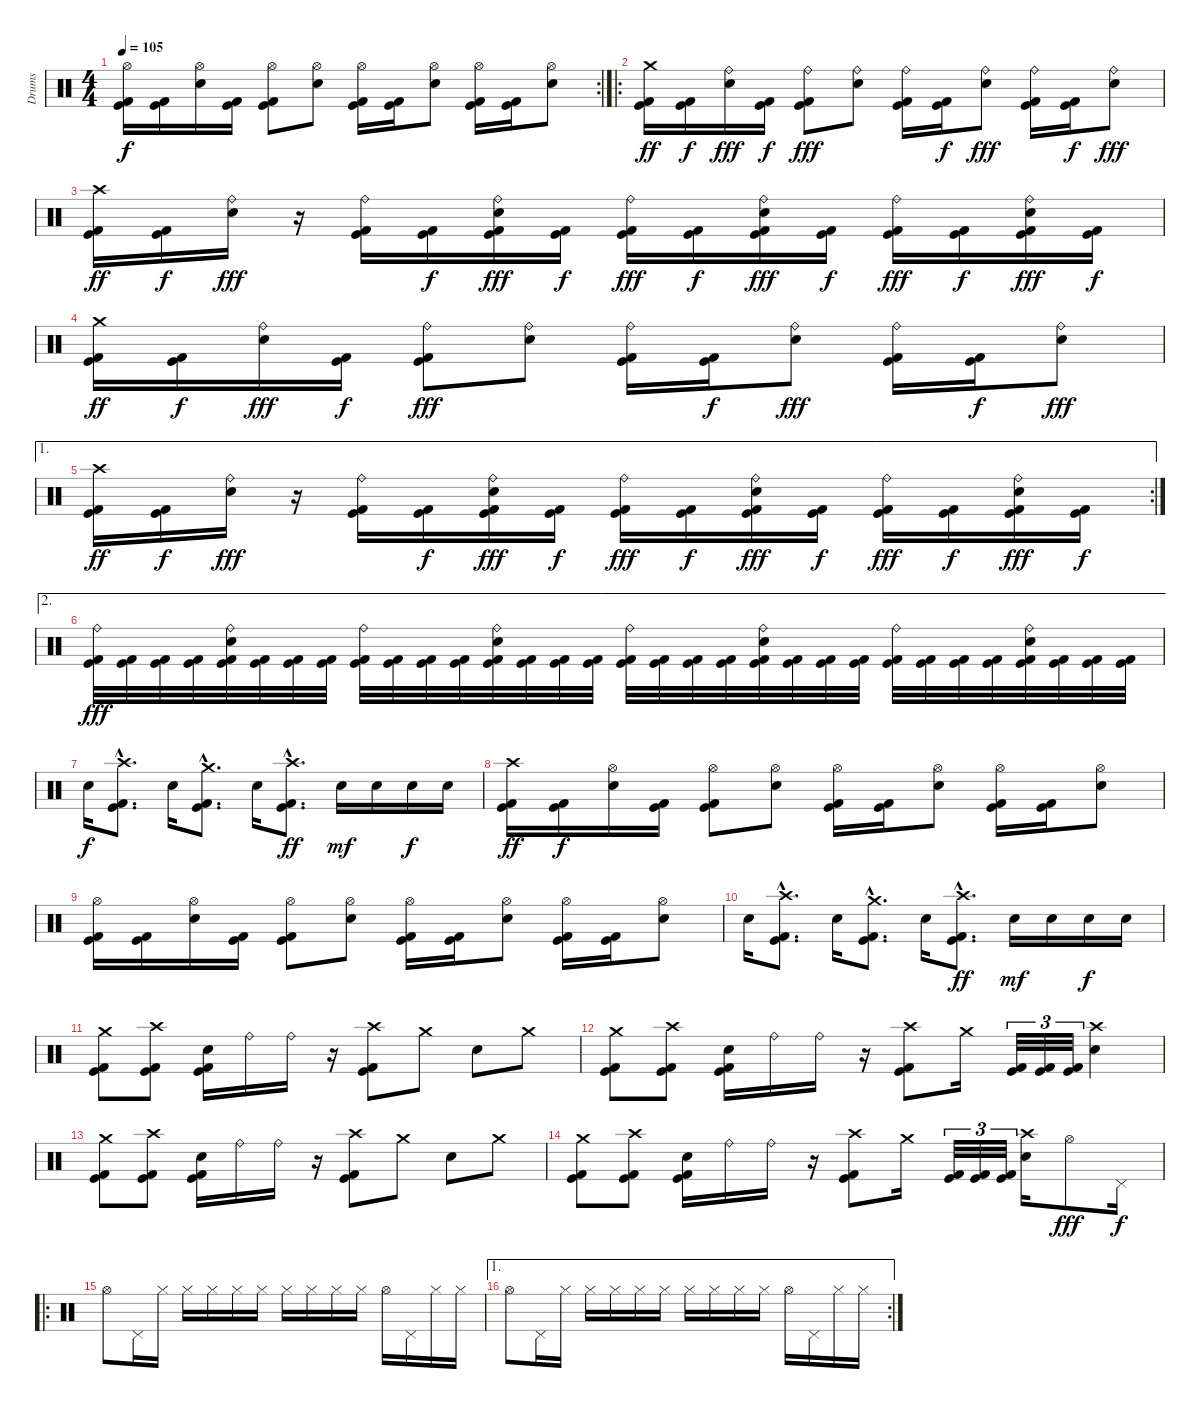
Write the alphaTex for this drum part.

\track ("Drums" "Drums") {instrument percussion}
\staff {score}
\articulation defaults
\rc 2
\ts (4 4)
\tempo 105
\clef neutral
\ks c
("Hi-Hat (open)" "Kick (hit) 2" "Kick (hit)").16{dy f} ("Kick (hit) 2" "Kick (hit)").16 ("Hi-Hat (open)" "Snare (hit) 2").16 ("Kick (hit) 2" "Kick (hit)").16 ("Hi-Hat (open)" "Kick (hit) 2" "Kick (hit)").8 ("Hi-Hat (open)" "Snare (hit) 2").8 ("Hi-Hat (open)" "Kick (hit) 2" "Kick (hit)").16 ("Kick (hit) 2" "Kick (hit)").16 ("Hi-Hat (open)" "Snare (hit) 2").8 ("Hi-Hat (open)" "Kick (hit) 2" "Kick (hit)").16 ("Kick (hit) 2" "Kick (hit)").16 ("Hi-Hat (open)" "Snare (hit) 2").8 |
\ro
("Crash medium (hit)" "Kick (hit) 2" "Kick (hit)").16{dy ff} ("Kick (hit) 2" "Kick (hit)").16{dy f} ("Ride (bell)" "Snare (hit) 2").16{dy fff} ("Kick (hit) 2" "Kick (hit)").16{dy f} ("Ride (bell)" "Kick (hit) 2" "Kick (hit)").8{dy fff} ("Ride (bell)" "Snare (hit) 2").8 ("Ride (bell)" "Kick (hit) 2" "Kick (hit)").16 ("Kick (hit) 2" "Kick (hit)").16{dy f} ("Ride (bell)" "Snare (hit) 2").8{dy fff} ("Ride (bell)" "Kick (hit) 2" "Kick (hit)").16 ("Kick (hit) 2" "Kick (hit)").16{dy f} ("Ride (bell)" "Snare (hit) 2").8{dy fff} |
("Crash high (hit)" "Kick (hit) 2" "Kick (hit)").16{dy ff} ("Kick (hit) 2" "Kick (hit)").16{dy f} ("Ride (bell)" "Snare (hit) 2").16{dy fff} r.16 ("Ride (bell)" "Kick (hit) 2" "Kick (hit)").16 ("Kick (hit) 2" "Kick (hit)").16{dy f} ("Ride (bell)" "Snare (hit) 2" "Kick (hit) 2" "Kick (hit)").16{dy fff} ("Kick (hit) 2" "Kick (hit)").16{dy f} ("Ride (bell)" "Kick (hit) 2" "Kick (hit)").16{dy fff} ("Kick (hit) 2" "Kick (hit)").16{dy f} ("Ride (bell)" "Snare (hit) 2" "Kick (hit) 2" "Kick (hit)").16{dy fff} ("Kick (hit) 2" "Kick (hit)").16{dy f} ("Ride (bell)" "Kick (hit) 2" "Kick (hit)").16{dy fff} ("Kick (hit) 2" "Kick (hit)").16{dy f} ("Ride (bell)" "Snare (hit) 2" "Kick (hit) 2" "Kick (hit)").16{dy fff} ("Kick (hit) 2" "Kick (hit)").16{dy f} |
("Crash medium (hit)" "Kick (hit) 2" "Kick (hit)").16{dy ff} ("Kick (hit) 2" "Kick (hit)").16{dy f} ("Ride (bell)" "Snare (hit) 2").16{dy fff} ("Kick (hit) 2" "Kick (hit)").16{dy f} ("Ride (bell)" "Kick (hit) 2" "Kick (hit)").8{dy fff} ("Ride (bell)" "Snare (hit) 2").8 ("Ride (bell)" "Kick (hit) 2" "Kick (hit)").16 ("Kick (hit) 2" "Kick (hit)").16{dy f} ("Ride (bell)" "Snare (hit) 2").8{dy fff} ("Ride (bell)" "Kick (hit) 2" "Kick (hit)").16 ("Kick (hit) 2" "Kick (hit)").16{dy f} ("Ride (bell)" "Snare (hit) 2").8{dy fff} |
\ae 1
\rc 2
("Crash high (hit)" "Kick (hit) 2" "Kick (hit)").16{dy ff} ("Kick (hit) 2" "Kick (hit)").16{dy f} ("Ride (bell)" "Snare (hit) 2").16{dy fff} r.16 ("Ride (bell)" "Kick (hit) 2" "Kick (hit)").16 ("Kick (hit) 2" "Kick (hit)").16{dy f} ("Ride (bell)" "Snare (hit) 2" "Kick (hit) 2" "Kick (hit)").16{dy fff} ("Kick (hit) 2" "Kick (hit)").16{dy f} ("Ride (bell)" "Kick (hit) 2" "Kick (hit)").16{dy fff} ("Kick (hit) 2" "Kick (hit)").16{dy f} ("Ride (bell)" "Snare (hit) 2" "Kick (hit) 2" "Kick (hit)").16{dy fff} ("Kick (hit) 2" "Kick (hit)").16{dy f} ("Ride (bell)" "Kick (hit) 2" "Kick (hit)").16{dy fff} ("Kick (hit) 2" "Kick (hit)").16{dy f} ("Ride (bell)" "Snare (hit) 2" "Kick (hit) 2" "Kick (hit)").16{dy fff} ("Kick (hit) 2" "Kick (hit)").16{dy f} |
\ae 2
("Ride (bell)" "Kick (hit) 2" "Kick (hit)").32{dy fff} ("Kick (hit) 2" "Kick (hit)").32 ("Kick (hit) 2" "Kick (hit)").32 ("Kick (hit) 2" "Kick (hit)").32 ("Ride (bell)" "Snare (hit) 2" "Kick (hit) 2" "Kick (hit)").32 ("Kick (hit) 2" "Kick (hit)").32 ("Kick (hit) 2" "Kick (hit)").32 ("Kick (hit) 2" "Kick (hit)").32 ("Ride (bell)" "Kick (hit) 2" "Kick (hit)").32 ("Kick (hit) 2" "Kick (hit)").32 ("Kick (hit) 2" "Kick (hit)").32 ("Kick (hit) 2" "Kick (hit)").32 ("Ride (bell)" "Snare (hit) 2" "Kick (hit) 2" "Kick (hit)").32 ("Kick (hit) 2" "Kick (hit)").32 ("Kick (hit) 2" "Kick (hit)").32 ("Kick (hit) 2" "Kick (hit)").32 ("Ride (bell)" "Kick (hit) 2" "Kick (hit)").32 ("Kick (hit) 2" "Kick (hit)").32 ("Kick (hit) 2" "Kick (hit)").32 ("Kick (hit) 2" "Kick (hit)").32 ("Ride (bell)" "Snare (hit) 2" "Kick (hit) 2" "Kick (hit)").32 ("Kick (hit) 2" "Kick (hit)").32 ("Kick (hit) 2" "Kick (hit)").32 ("Kick (hit) 2" "Kick (hit)").32 ("Ride (bell)" "Kick (hit) 2" "Kick (hit)").32 ("Kick (hit) 2" "Kick (hit)").32 ("Kick (hit) 2" "Kick (hit)").32 ("Kick (hit) 2" "Kick (hit)").32 ("Ride (bell)" "Snare (hit) 2" "Kick (hit) 2" "Kick (hit)").32 ("Kick (hit) 2" "Kick (hit)").32 ("Kick (hit) 2" "Kick (hit)").32 ("Kick (hit) 2" "Kick (hit)").32 |
"Snare (hit) 2".16{dy f} ("Crash high (hit)"{hac} "Kick (hit) 2"{hac} "Kick (hit)"{hac}).8{d} "Snare (hit) 2".16 ("Crash medium (hit)"{hac} "Kick (hit) 2"{hac} "Kick (hit)"{hac}).8{d} "Snare (hit) 2".16 ("Crash high (hit)"{hac} "Kick (hit) 2"{hac} "Kick (hit)"{hac}).8{d dy ff} "Snare (hit) 2".16{dy mf} "Snare (hit) 2".16 "Snare (hit) 2".16{dy f} "Snare (hit) 2".16 |
("Crash high (hit)" "Kick (hit) 2" "Kick (hit)").16{dy ff} ("Kick (hit) 2" "Kick (hit)").16{dy f} ("Hi-Hat (open)" "Snare (hit) 2").16 ("Kick (hit) 2" "Kick (hit)").16 ("Hi-Hat (open)" "Kick (hit) 2" "Kick (hit)").8 ("Hi-Hat (open)" "Snare (hit) 2").8 ("Hi-Hat (open)" "Kick (hit) 2" "Kick (hit)").16 ("Kick (hit) 2" "Kick (hit)").16 ("Hi-Hat (open)" "Snare (hit) 2").8 ("Hi-Hat (open)" "Kick (hit) 2" "Kick (hit)").16 ("Kick (hit) 2" "Kick (hit)").16 ("Hi-Hat (open)" "Snare (hit) 2").8 |
("Hi-Hat (open)" "Kick (hit) 2" "Kick (hit)").16 ("Kick (hit) 2" "Kick (hit)").16 ("Hi-Hat (open)" "Snare (hit) 2").16 ("Kick (hit) 2" "Kick (hit)").16 ("Hi-Hat (open)" "Kick (hit) 2" "Kick (hit)").8 ("Hi-Hat (open)" "Snare (hit) 2").8 ("Hi-Hat (open)" "Kick (hit) 2" "Kick (hit)").16 ("Kick (hit) 2" "Kick (hit)").16 ("Hi-Hat (open)" "Snare (hit) 2").8 ("Hi-Hat (open)" "Kick (hit) 2" "Kick (hit)").16 ("Kick (hit) 2" "Kick (hit)").16 ("Hi-Hat (open)" "Snare (hit) 2").8 |
"Snare (hit) 2".16 ("Crash high (hit)"{hac} "Kick (hit) 2"{hac} "Kick (hit)"{hac}).8{d} "Snare (hit) 2".16 ("Crash medium (hit)"{hac} "Kick (hit) 2"{hac} "Kick (hit)"{hac}).8{d} "Snare (hit) 2".16 ("Crash high (hit)"{hac} "Kick (hit) 2"{hac} "Kick (hit)"{hac}).8{d dy ff} "Snare (hit) 2".16{dy mf} "Snare (hit) 2".16 "Snare (hit) 2".16{dy f} "Snare (hit) 2".16 |
("Crash medium (hit)" "Kick (hit) 2" "Kick (hit)").8 ("Crash high (hit)" "Kick (hit) 2" "Kick (hit)").8 ("Snare (hit) 2" "Kick (hit) 2" "Kick (hit)").16 "Ride (bell)".16 "Ride (bell)".16 r.16 ("Crash high (hit)" "Kick (hit) 2" "Kick (hit)").8 "Crash medium (hit)".8 "Snare (hit) 2".8 "Crash medium (hit)".8 |
("Crash medium (hit)" "Kick (hit) 2" "Kick (hit)").8 ("Crash high (hit)" "Kick (hit) 2" "Kick (hit)").8 ("Snare (hit) 2" "Kick (hit) 2" "Kick (hit)").16 "Ride (bell)".16 "Ride (bell)".16 r.16 ("Crash high (hit)" "Kick (hit) 2" "Kick (hit)").8 "Crash medium (hit)".16 ("Kick (hit) 2" "Kick (hit)").32{tu (3 2)} ("Kick (hit) 2" "Kick (hit)").32{tu (3 2)} ("Kick (hit) 2" "Kick (hit)").32{tu (3 2)} ("Crash high (hit)" "Snare (hit) 2").4 |
("Crash medium (hit)" "Kick (hit) 2" "Kick (hit)").8 ("Crash high (hit)" "Kick (hit) 2" "Kick (hit)").8 ("Snare (hit) 2" "Kick (hit) 2" "Kick (hit)").16 "Ride (bell)".16 "Ride (bell)".16 r.16 ("Crash high (hit)" "Kick (hit) 2" "Kick (hit)").8 "Crash medium (hit)".8 "Snare (hit) 2".8 "Crash medium (hit)".8 |
("Crash medium (hit)" "Kick (hit) 2" "Kick (hit)").8 ("Crash high (hit)" "Kick (hit) 2" "Kick (hit)").8 ("Snare (hit) 2" "Kick (hit) 2" "Kick (hit)").16 "Ride (bell)".16 "Ride (bell)".16 r.16 ("Crash high (hit)" "Kick (hit) 2" "Kick (hit)").8 "Crash medium (hit)".16 ("Kick (hit) 2" "Kick (hit)").32{tu (3 2)} ("Kick (hit) 2" "Kick (hit)").32{tu (3 2)} ("Kick (hit) 2" "Kick (hit)").32{tu (3 2)} ("Crash high (hit)" "Snare (hit) 2").16 "Hi-Hat (open)".8{dy fff} "Pedal Hi-Hat (hit)".16{dy f} |
\ro "Hi-Hat (open)".8 "Pedal Hi-Hat (hit)".16 "Hi-Hat (closed)".16 "Hi-Hat (closed)".16 "Hi-Hat (closed)".16 "Hi-Hat (closed)".16 "Hi-Hat (closed)".16 "Hi-Hat (closed)".16 "Hi-Hat (closed)".16 "Hi-Hat (closed)".16 "Hi-Hat (closed)".16 "Hi-Hat (open)".16 "Pedal Hi-Hat (hit)".16 "Hi-Hat (closed)".16 "Hi-Hat (closed)".16
|
\ae 1
\rc 2 "Hi-Hat (open)".8 "Pedal Hi-Hat (hit)".16 "Hi-Hat (closed)".16 "Hi-Hat (closed)".16 "Hi-Hat (closed)".16 "Hi-Hat (closed)".16 "Hi-Hat (closed)".16 "Hi-Hat (closed)".16 "Hi-Hat (closed)".16 "Hi-Hat (closed)".16 "Hi-Hat (closed)".16 "Hi-Hat (open)".16 "Pedal Hi-Hat (hit)".16 "Hi-Hat (closed)".16 "Hi-Hat (closed)".16
